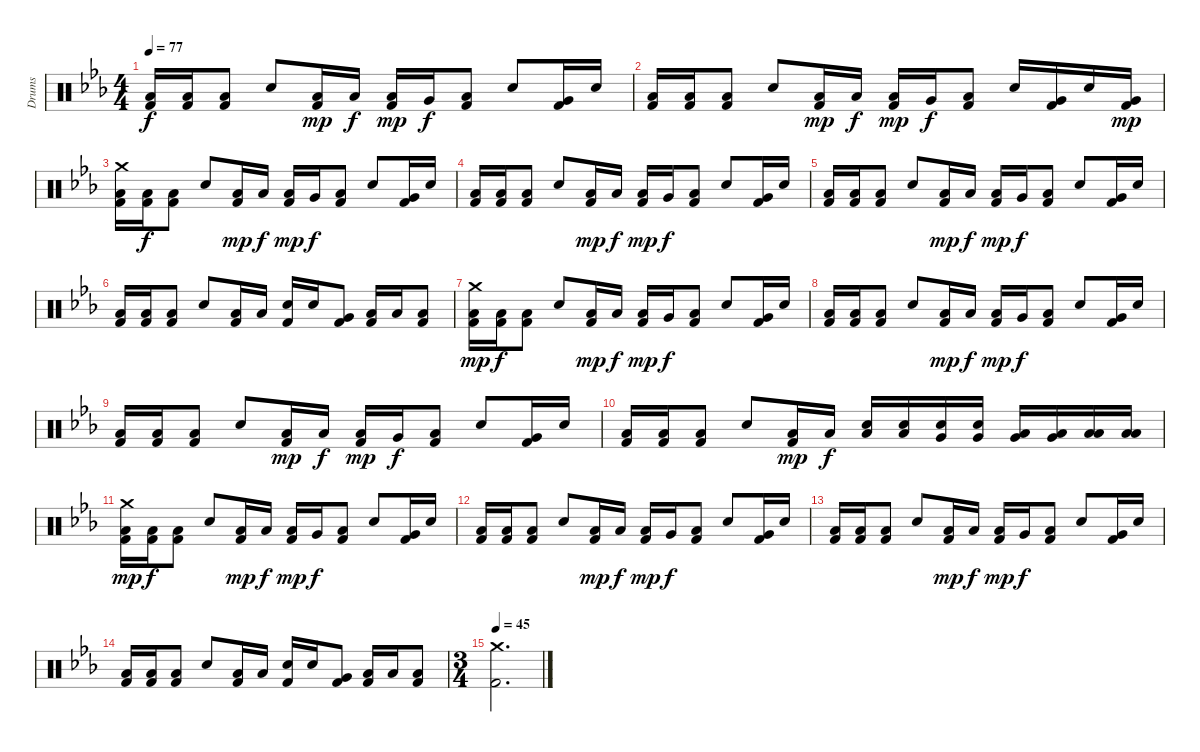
\track ("Drums" "Drums") {instrument percussion}
\staff {score}
\articulation defaults
\ts (4 4)
\tempo 77
\clef neutral
\ks eb
("Low Floor Tom (hit)" "Kick (hit) 2").16{dy f} ("Low Floor Tom (hit)" "Kick (hit) 2").16 ("Low Floor Tom (hit)" "Kick (hit) 2").8 "Electric Snare (hit)".8 ("Low Floor Tom (hit)" "Kick (hit) 2").16{dy mp} "Low Tom (hit)".16{dy f} ("Low Floor Tom (hit)" "Kick (hit) 2").16{dy mp} "Very Low Tom (hit)".16{dy f} ("Low Floor Tom (hit)" "Kick (hit) 2").8 "Electric Snare (hit)".8 ("Very Low Tom (hit)" "Kick (hit) 2").16 "Electric Snare (hit)".16 |
("Low Floor Tom (hit)" "Kick (hit) 2").16 ("Low Floor Tom (hit)" "Kick (hit) 2").16 ("Low Floor Tom (hit)" "Kick (hit) 2").8 "Electric Snare (hit)".8 ("Low Floor Tom (hit)" "Kick (hit) 2").16{dy mp} "Low Tom (hit)".16{dy f} ("Low Floor Tom (hit)" "Kick (hit) 2").16{dy mp} "Very Low Tom (hit)".16{dy f} ("Low Floor Tom (hit)" "Kick (hit) 2").8 "Electric Snare (hit)".16 ("Very Low Tom (hit)" "Kick (hit) 2").16 "Electric Snare (hit)".16 ("Very Low Tom (hit)" "Kick (hit) 2").16{dy mp} |
("Crash medium (hit)" "Low Floor Tom (hit)" "Kick (hit) 2").16 ("Low Floor Tom (hit)" "Kick (hit) 2").16{dy f} ("Low Floor Tom (hit)" "Kick (hit) 2").8 "Electric Snare (hit)".8 ("Low Floor Tom (hit)" "Kick (hit) 2").16{dy mp} "Low Tom (hit)".16{dy f} ("Low Floor Tom (hit)" "Kick (hit) 2").16{dy mp} "Very Low Tom (hit)".16{dy f} ("Low Floor Tom (hit)" "Kick (hit) 2").8 "Electric Snare (hit)".8 ("Very Low Tom (hit)" "Kick (hit) 2").16 "Electric Snare (hit)".16 |
("Low Floor Tom (hit)" "Kick (hit) 2").16 ("Low Floor Tom (hit)" "Kick (hit) 2").16 ("Low Floor Tom (hit)" "Kick (hit) 2").8 "Electric Snare (hit)".8 ("Low Floor Tom (hit)" "Kick (hit) 2").16{dy mp} "Low Tom (hit)".16{dy f} ("Low Floor Tom (hit)" "Kick (hit) 2").16{dy mp} "Very Low Tom (hit)".16{dy f} ("Low Floor Tom (hit)" "Kick (hit) 2").8 "Electric Snare (hit)".8 ("Very Low Tom (hit)" "Kick (hit) 2").16 "Electric Snare (hit)".16 |
("Low Floor Tom (hit)" "Kick (hit) 2").16 ("Low Floor Tom (hit)" "Kick (hit) 2").16 ("Low Floor Tom (hit)" "Kick (hit) 2").8 "Electric Snare (hit)".8 ("Low Floor Tom (hit)" "Kick (hit) 2").16{dy mp} "Low Tom (hit)".16{dy f} ("Low Floor Tom (hit)" "Kick (hit) 2").16{dy mp} "Very Low Tom (hit)".16{dy f} ("Low Floor Tom (hit)" "Kick (hit) 2").8 "Electric Snare (hit)".8 ("Very Low Tom (hit)" "Kick (hit) 2").16 "Electric Snare (hit)".16 |
("Low Floor Tom (hit)" "Kick (hit) 2").16 ("Low Floor Tom (hit)" "Kick (hit) 2").16 ("Low Floor Tom (hit)" "Kick (hit) 2").8 "Electric Snare (hit)".8 ("Low Floor Tom (hit)" "Kick (hit) 2").16 "Low Tom (hit)".16 ("Electric Snare (hit)" "Kick (hit) 2").16 "Electric Snare (hit)".16 ("Very Low Tom (hit)" "Kick (hit) 2").8 ("Low Tom (hit)" "Kick (hit) 2").16 "Low Tom (hit)".16 ("Low Floor Tom (hit)" "Kick (hit) 2").8 |
("Crash medium (hit)" "Low Floor Tom (hit)" "Kick (hit) 2").16{dy mp} ("Low Floor Tom (hit)" "Kick (hit) 2").16{dy f} ("Low Floor Tom (hit)" "Kick (hit) 2").8 "Electric Snare (hit)".8 ("Low Floor Tom (hit)" "Kick (hit) 2").16{dy mp} "Low Tom (hit)".16{dy f} ("Low Floor Tom (hit)" "Kick (hit) 2").16{dy mp} "Very Low Tom (hit)".16{dy f} ("Low Floor Tom (hit)" "Kick (hit) 2").8 "Electric Snare (hit)".8 ("Very Low Tom (hit)" "Kick (hit) 2").16 "Electric Snare (hit)".16 |
("Low Floor Tom (hit)" "Kick (hit) 2").16 ("Low Floor Tom (hit)" "Kick (hit) 2").16 ("Low Floor Tom (hit)" "Kick (hit) 2").8 "Electric Snare (hit)".8 ("Low Floor Tom (hit)" "Kick (hit) 2").16{dy mp} "Low Tom (hit)".16{dy f} ("Low Floor Tom (hit)" "Kick (hit) 2").16{dy mp} "Very Low Tom (hit)".16{dy f} ("Low Floor Tom (hit)" "Kick (hit) 2").8 "Electric Snare (hit)".8 ("Very Low Tom (hit)" "Kick (hit) 2").16 "Electric Snare (hit)".16 |
("Low Floor Tom (hit)" "Kick (hit) 2").16 ("Low Floor Tom (hit)" "Kick (hit) 2").16 ("Low Floor Tom (hit)" "Kick (hit) 2").8 "Electric Snare (hit)".8 ("Low Floor Tom (hit)" "Kick (hit) 2").16{dy mp} "Low Tom (hit)".16{dy f} ("Low Floor Tom (hit)" "Kick (hit) 2").16{dy mp} "Very Low Tom (hit)".16{dy f} ("Low Floor Tom (hit)" "Kick (hit) 2").8 "Electric Snare (hit)".8 ("Very Low Tom (hit)" "Kick (hit) 2").16 "Electric Snare (hit)".16 |
("Low Floor Tom (hit)" "Kick (hit) 2").16 ("Low Floor Tom (hit)" "Kick (hit) 2").16 ("Low Floor Tom (hit)" "Kick (hit) 2").8 "Electric Snare (hit)".8 ("Low Floor Tom (hit)" "Kick (hit) 2").16{dy mp} "Low Tom (hit)".16{dy f} ("Low Tom (hit)" "Electric Snare (hit)").16 ("Low Tom (hit)" "Electric Snare (hit)").16 ("Very Low Tom (hit)" "Electric Snare (hit)").16 ("Very Low Tom (hit)" "Electric Snare (hit)").16 ("Very Low Tom (hit)" "Low Floor Tom (hit)").16 ("Very Low Tom (hit)" "Low Floor Tom (hit)").16 ("Low Tom (hit)" "Low Floor Tom (hit)").16 ("Low Tom (hit)" "Low Floor Tom (hit)").16 |
("Crash medium (hit)" "Low Floor Tom (hit)" "Kick (hit) 2").16{dy mp} ("Low Floor Tom (hit)" "Kick (hit) 2").16{dy f} ("Low Floor Tom (hit)" "Kick (hit) 2").8 "Electric Snare (hit)".8 ("Low Floor Tom (hit)" "Kick (hit) 2").16{dy mp} "Low Tom (hit)".16{dy f} ("Low Floor Tom (hit)" "Kick (hit) 2").16{dy mp} "Very Low Tom (hit)".16{dy f} ("Low Floor Tom (hit)" "Kick (hit) 2").8 "Electric Snare (hit)".8 ("Very Low Tom (hit)" "Kick (hit) 2").16 "Electric Snare (hit)".16 |
("Low Floor Tom (hit)" "Kick (hit) 2").16 ("Low Floor Tom (hit)" "Kick (hit) 2").16 ("Low Floor Tom (hit)" "Kick (hit) 2").8 "Electric Snare (hit)".8 ("Low Floor Tom (hit)" "Kick (hit) 2").16{dy mp} "Low Tom (hit)".16{dy f} ("Low Floor Tom (hit)" "Kick (hit) 2").16{dy mp} "Very Low Tom (hit)".16{dy f} ("Low Floor Tom (hit)" "Kick (hit) 2").8 "Electric Snare (hit)".8 ("Very Low Tom (hit)" "Kick (hit) 2").16 "Electric Snare (hit)".16 |
("Low Floor Tom (hit)" "Kick (hit) 2").16 ("Low Floor Tom (hit)" "Kick (hit) 2").16 ("Low Floor Tom (hit)" "Kick (hit) 2").8 "Electric Snare (hit)".8 ("Low Floor Tom (hit)" "Kick (hit) 2").16{dy mp} "Low Tom (hit)".16{dy f} ("Low Floor Tom (hit)" "Kick (hit) 2").16{dy mp} "Very Low Tom (hit)".16{dy f} ("Low Floor Tom (hit)" "Kick (hit) 2").8 "Electric Snare (hit)".8 ("Very Low Tom (hit)" "Kick (hit) 2").16 "Electric Snare (hit)".16 |
("Low Floor Tom (hit)" "Kick (hit) 2").16 ("Low Floor Tom (hit)" "Kick (hit) 2").16 ("Low Floor Tom (hit)" "Kick (hit) 2").8 "Electric Snare (hit)".8 ("Low Floor Tom (hit)" "Kick (hit) 2").16 "Low Tom (hit)".16 ("Electric Snare (hit)" "Kick (hit) 2").16 "Electric Snare (hit)".16 ("Very Low Tom (hit)" "Kick (hit) 2").8 ("Low Tom (hit)" "Kick (hit) 2").16 "Low Tom (hit)".16 ("Low Floor Tom (hit)" "Kick (hit) 2").8 |
\ts (3 4)
\tempo 45
("Crash medium (hit)" "Kick (hit) 2").2{d}
